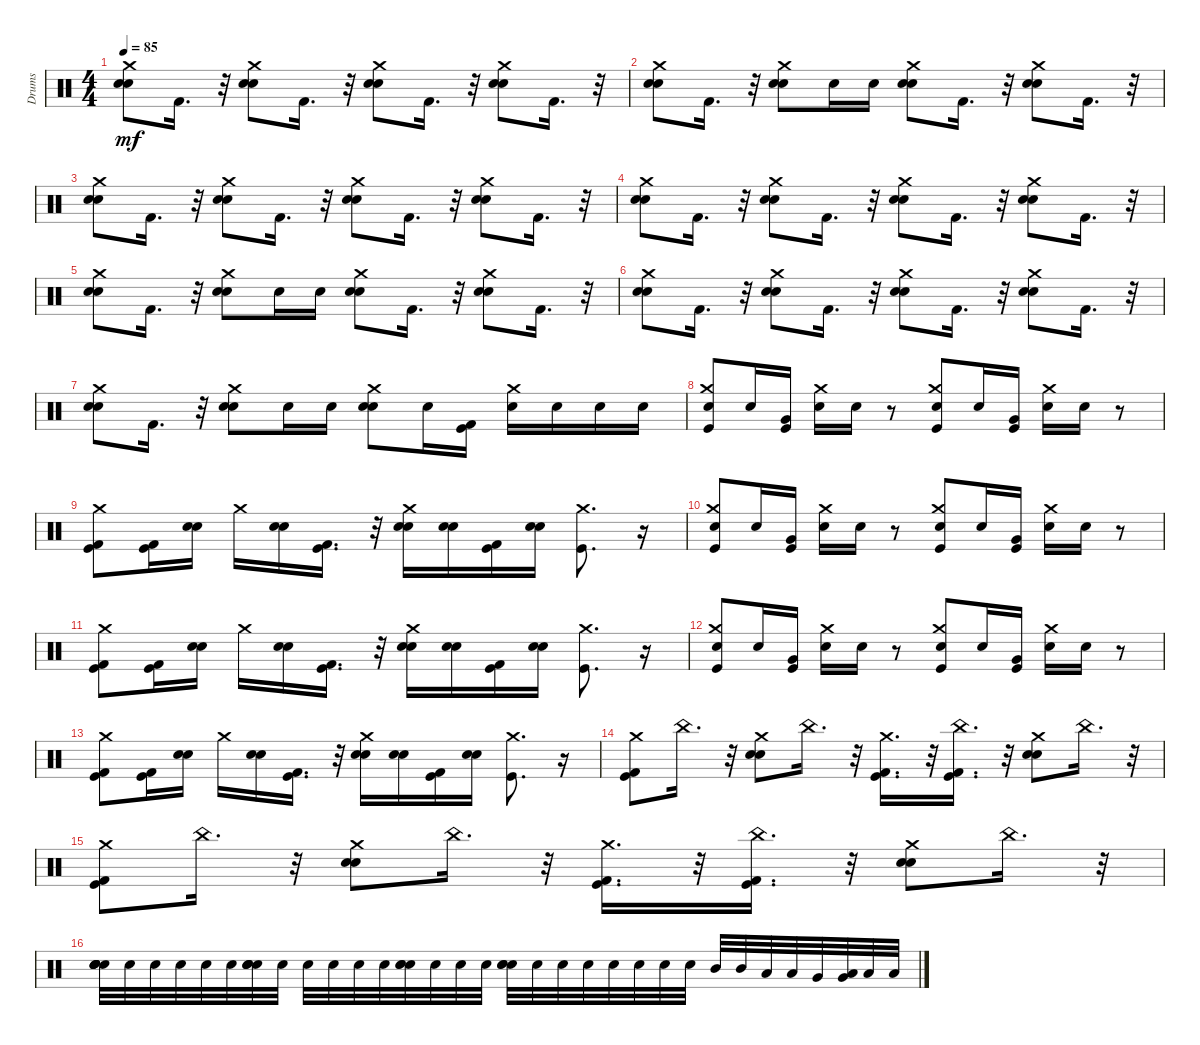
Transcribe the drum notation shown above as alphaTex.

\track ("Drums" "Drums") {instrument percussion}
\staff {score}
\articulation defaults
\ts (4 4)
\tempo 85
\clef neutral
\ks c
("Snare (hit) 2" "Electric Snare (hit)" "Crash medium (hit)").8{dy mf} "Kick (hit) 2".16{d} r.32 ("Snare (hit) 2" "Electric Snare (hit)" "Crash medium (hit)").8 "Kick (hit) 2".16{d} r.32 ("Electric Snare (hit)" "Snare (hit) 2" "Crash medium (hit)").8 "Kick (hit) 2".16{d} r.32 ("Electric Snare (hit)" "Snare (hit) 2" "Crash medium (hit)").8 "Kick (hit) 2".16{d} r.32 |
("Snare (hit) 2" "Electric Snare (hit)" "Crash medium (hit)").8 "Kick (hit) 2".16{d} r.32 ("Snare (hit) 2" "Electric Snare (hit)" "Crash medium (hit)").8 "Electric Snare (hit)".16 "Snare (hit) 2".16 ("Electric Snare (hit)" "Snare (hit) 2" "Crash medium (hit)").8 "Kick (hit) 2".16{d} r.32 ("Snare (hit) 2" "Electric Snare (hit)" "Crash medium (hit)").8 "Kick (hit) 2".16{d} r.32 |
("Snare (hit) 2" "Electric Snare (hit)" "Crash medium (hit)").8 "Kick (hit) 2".16{d} r.32 ("Electric Snare (hit)" "Snare (hit) 2" "Crash medium (hit)").8 "Kick (hit) 2".16{d} r.32 ("Electric Snare (hit)" "Snare (hit) 2" "Crash medium (hit)").8 "Kick (hit) 2".16{d} r.32 ("Electric Snare (hit)" "Snare (hit) 2" "Crash medium (hit)").8 "Kick (hit) 2".16{d} r.32 |
("Snare (hit) 2" "Electric Snare (hit)" "Crash medium (hit)").8 "Kick (hit) 2".16{d} r.32 ("Electric Snare (hit)" "Snare (hit) 2" "Crash medium (hit)").8 "Kick (hit) 2".16{d} r.32 ("Electric Snare (hit)" "Snare (hit) 2" "Crash medium (hit)").8 "Kick (hit) 2".16{d} r.32 ("Electric Snare (hit)" "Snare (hit) 2" "Crash medium (hit)").8 "Kick (hit) 2".16{d} r.32 |
("Electric Snare (hit)" "Snare (hit) 2" "Crash medium (hit)").8 "Kick (hit) 2".16{d} r.32 ("Electric Snare (hit)" "Snare (hit) 2" "Crash medium (hit)").8 "Electric Snare (hit)".16 "Snare (hit) 2".16 ("Electric Snare (hit)" "Snare (hit) 2" "Crash medium (hit)").8 "Kick (hit) 2".16{d} r.32 ("Snare (hit) 2" "Electric Snare (hit)" "Crash medium (hit)").8 "Kick (hit) 2".16{d} r.32 |
("Snare (hit) 2" "Electric Snare (hit)" "Crash medium (hit)").8 "Kick (hit) 2".16{d} r.32 ("Electric Snare (hit)" "Snare (hit) 2" "Crash medium (hit)").8 "Kick (hit) 2".16{d} r.32 ("Electric Snare (hit)" "Snare (hit) 2" "Crash medium (hit)").8 "Kick (hit) 2".16{d} r.32 ("Electric Snare (hit)" "Snare (hit) 2" "Crash medium (hit)").8 "Kick (hit) 2".16{d} r.32 |
("Electric Snare (hit)" "Snare (hit) 2" "Crash medium (hit)").8 "Kick (hit) 2".16{d} r.32 ("Snare (hit) 2" "Electric Snare (hit)" "Crash medium (hit)").8 "Electric Snare (hit)".16 "Snare (hit) 2".16 ("Electric Snare (hit)" "Snare (hit) 2" "Crash medium (hit)").8 "Electric Snare (hit)".16 ("Kick (hit)" "Kick (hit) 2").16 ("Electric Snare (hit)" "Crash medium (hit)").16 "Snare (hit) 2".16 "Electric Snare (hit)".16 "Snare (hit) 2".16 |
("Electric Snare (hit)" "Kick (hit)" "Crash medium (hit)").8 "Electric Snare (hit)".16 ("Kick (hit)" "Very Low Tom (hit)").16 ("Electric Snare (hit)" "Crash medium (hit)").16 "Snare (hit) 2".16 r.8 ("Kick (hit)" "Electric Snare (hit)" "Crash medium (hit)").8 "Electric Snare (hit)".16 ("Very Low Tom (hit)" "Kick (hit)").16 ("Electric Snare (hit)" "Crash medium (hit)").16 "Snare (hit) 2".16 r.8 |
("Kick (hit)" "Kick (hit) 2" "Crash medium (hit)").8 ("Kick (hit) 2" "Kick (hit)").16 ("Electric Snare (hit)" "Snare (hit) 2").16 "Crash medium (hit)".16 ("Electric Snare (hit)" "Snare (hit) 2").16 ("Kick (hit) 2" "Kick (hit)").16{d} r.32 ("Snare (hit) 2" "Electric Snare (hit)" "Crash medium (hit)").16 ("Electric Snare (hit)" "Snare (hit) 2").16 ("Kick (hit)" "Kick (hit) 2").16 ("Snare (hit) 2" "Electric Snare (hit)").16 ("Kick (hit)" "Crash medium (hit)").8{d} r.16 |
("Electric Snare (hit)" "Kick (hit)" "Crash medium (hit)").8 "Electric Snare (hit)".16 ("Kick (hit)" "Very Low Tom (hit)").16 ("Electric Snare (hit)" "Crash medium (hit)").16 "Snare (hit) 2".16 r.8 ("Kick (hit)" "Electric Snare (hit)" "Crash medium (hit)").8 "Electric Snare (hit)".16 ("Very Low Tom (hit)" "Kick (hit)").16 ("Electric Snare (hit)" "Crash medium (hit)").16 "Snare (hit) 2".16 r.8 |
("Kick (hit)" "Kick (hit) 2" "Crash medium (hit)").8 ("Kick (hit) 2" "Kick (hit)").16 ("Electric Snare (hit)" "Snare (hit) 2").16 "Crash medium (hit)".16 ("Electric Snare (hit)" "Snare (hit) 2").16 ("Kick (hit) 2" "Kick (hit)").16{d} r.32 ("Snare (hit) 2" "Electric Snare (hit)" "Crash medium (hit)").16 ("Snare (hit) 2" "Electric Snare (hit)").16 ("Kick (hit)" "Kick (hit) 2").16 ("Electric Snare (hit)" "Snare (hit) 2").16 ("Kick (hit)" "Crash medium (hit)").8{d} r.16 |
("Electric Snare (hit)" "Kick (hit)" "Crash medium (hit)").8 "Electric Snare (hit)".16 ("Kick (hit)" "Very Low Tom (hit)").16 ("Electric Snare (hit)" "Crash medium (hit)").16 "Snare (hit) 2".16 r.8 ("Kick (hit)" "Electric Snare (hit)" "Crash medium (hit)").8 "Electric Snare (hit)".16 ("Very Low Tom (hit)" "Kick (hit)").16 ("Electric Snare (hit)" "Crash medium (hit)").16 "Snare (hit) 2".16 r.8 |
("Kick (hit)" "Kick (hit) 2" "Crash medium (hit)").8 ("Kick (hit) 2" "Kick (hit)").16 ("Electric Snare (hit)" "Snare (hit) 2").16 "Crash medium (hit)".16 ("Electric Snare (hit)" "Snare (hit) 2").16 ("Kick (hit) 2" "Kick (hit)").16{d} r.32 ("Snare (hit) 2" "Electric Snare (hit)" "Crash medium (hit)").16 ("Snare (hit) 2" "Electric Snare (hit)").16 ("Kick (hit)" "Kick (hit) 2").16 ("Electric Snare (hit)" "Snare (hit) 2").16 ("Kick (hit)" "Crash medium (hit)").8{d} r.16 |
("Kick (hit)" "Kick (hit) 2" "Crash medium (hit)").8 "China (hit)".16{d} r.32 ("Snare (hit) 2" "Electric Snare (hit)" "Crash medium (hit)").8 "China (hit)".16{d} r.32 ("Kick (hit) 2" "Kick (hit)" "Crash medium (hit)").16{d} r.32 ("Kick (hit) 2" "Kick (hit)" "China (hit)").16{d} r.32 ("Snare (hit) 2" "Electric Snare (hit)" "Crash medium (hit)").8 "China (hit)".16{d} r.32 |
("Kick (hit) 2" "Kick (hit)" "Crash medium (hit)").8 "China (hit)".16{d} r.32 ("Electric Snare (hit)" "Snare (hit) 2" "Crash medium (hit)").8 "China (hit)".16{d} r.32 ("Kick (hit) 2" "Kick (hit)" "Crash medium (hit)").16{d} r.32 ("Kick (hit) 2" "Kick (hit)" "China (hit)").16{d} r.32 ("Snare (hit) 2" "Electric Snare (hit)" "Crash medium (hit)").8 "China (hit)".16{d} r.32 |
("Electric Snare (hit)" "Electric Snare (hit)" "Snare (hit) 2" "Electric Snare (hit)" "Snare (hit) 2").32 "Snare (hit) 2".32 "Electric Snare (hit)".32 "Snare (hit) 2".32 "Electric Snare (hit)".32 "Snare (hit) 2".32 ("Electric Snare (hit)" "Electric Snare (hit)" "Snare (hit) 2" "Snare (hit) 2").32 "Electric Snare (hit)".32 "Snare (hit) 2".32 "Electric Snare (hit)".32 "Snare (hit) 2".32 "Electric Snare (hit)".32 ("Snare (hit) 2" "Electric Snare (hit)" "Electric Snare (hit)").32 "Electric Snare (hit)".32 "Snare (hit) 2".32 "Electric Snare (hit)".32 ("Electric Snare (hit)" "Electric Snare (hit)" "Snare (hit) 2").32 "Snare (hit) 2".32 "Electric Snare (hit)".32 "Snare (hit) 2".32 "Electric Snare (hit)".32 "Snare (hit) 2".32 "Snare (hit) 2".32 "Electric Snare (hit)".32 "Mid Tom (hit)".32 "Mid Tom (hit)".32 "Low Tom (hit)".32 "Low Tom (hit)".32 "Very Low Tom (hit)".32 ("Low Floor Tom (hit)" "Very Low Tom (hit)").32 "Low Floor Tom (hit)".32 "Low Floor Tom (hit)".32
